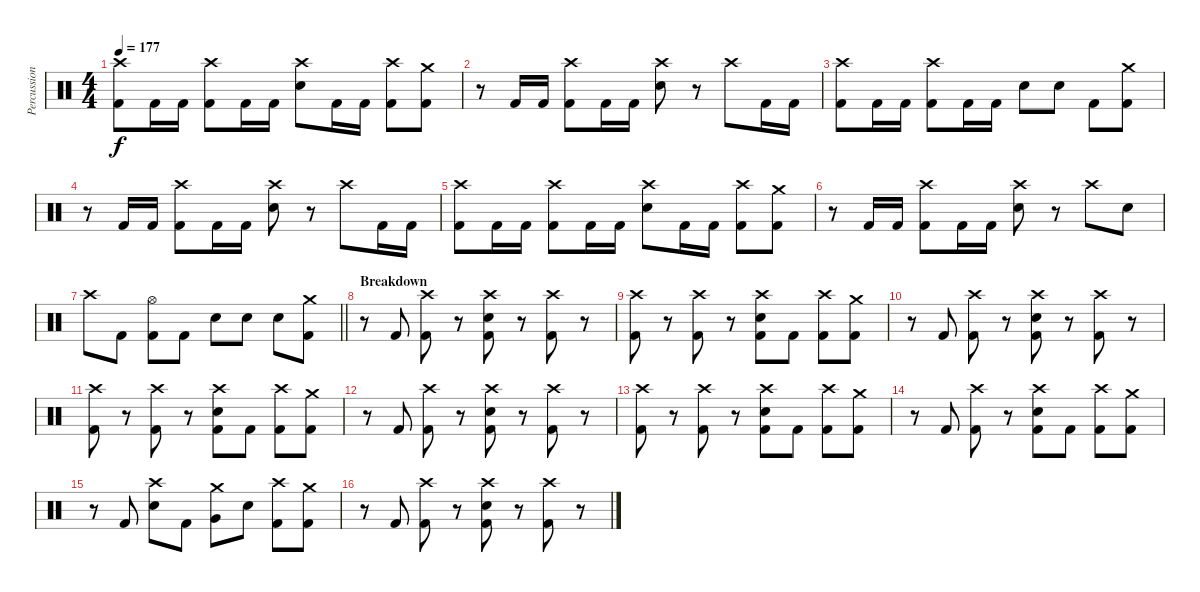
\track ("Percussion" "Percussion") {instrument percussion}
\staff {score}
\articulation defaults
\ts (4 4)
\tempo 177
\clef neutral
\ks c
("Crash high (hit)" "Kick (hit) 2").8{dy f} "Kick (hit) 2".16 "Kick (hit) 2".16 ("Crash high (hit)" "Kick (hit) 2").8 "Kick (hit) 2".16 "Kick (hit) 2".16 ("Crash high (hit)" "Snare (hit) 2").8 "Kick (hit) 2".16 "Kick (hit) 2".16 ("Crash high (hit)" "Kick (hit) 2").8 ("Crash medium (hit)" "Kick (hit) 2").8 |
r.8 "Kick (hit) 2".16 "Kick (hit) 2".16 ("Crash high (hit)" "Kick (hit) 2").8 "Kick (hit) 2".16 "Kick (hit) 2".16 ("Crash high (hit)" "Snare (hit) 2").8 r.8 "Crash high (hit)".8 "Kick (hit) 2".16 "Kick (hit) 2".16 |
("Crash high (hit)" "Kick (hit) 2").8 "Kick (hit) 2".16 "Kick (hit) 2".16 ("Crash high (hit)" "Kick (hit) 2").8 "Kick (hit) 2".16 "Kick (hit) 2".16 "Snare (hit) 2".8 "Snare (hit) 2".8 "Kick (hit) 2".8 ("Crash medium (hit)" "Kick (hit) 2").8 |
r.8 "Kick (hit) 2".16 "Kick (hit) 2".16 ("Crash high (hit)" "Kick (hit) 2").8 "Kick (hit) 2".16 "Kick (hit) 2".16 ("Crash high (hit)" "Snare (hit) 2").8 r.8 "Crash high (hit)".8 "Kick (hit) 2".16 "Kick (hit) 2".16 |
("Crash high (hit)" "Kick (hit) 2").8 "Kick (hit) 2".16 "Kick (hit) 2".16 ("Crash high (hit)" "Kick (hit) 2").8 "Kick (hit) 2".16 "Kick (hit) 2".16 ("Crash high (hit)" "Snare (hit) 2").8 "Kick (hit) 2".16 "Kick (hit) 2".16 ("Crash high (hit)" "Kick (hit) 2").8 ("Crash medium (hit)" "Kick (hit) 2").8 |
r.8 "Kick (hit) 2".16 "Kick (hit) 2".16 ("Crash high (hit)" "Kick (hit) 2").8 "Kick (hit) 2".16 "Kick (hit) 2".16 ("Crash high (hit)" "Snare (hit) 2").8 r.8 "Crash high (hit)".8 "Snare (hit) 2".8 |
\barLineRight lightlight "Crash high (hit)".8 "Kick (hit) 2".8
("Hi-Hat (open)" "Kick (hit) 2").8 "Kick (hit) 2".8 "Snare (hit) 2".8 "Snare (hit) 2".8 "Snare (hit) 2".8 ("Crash medium (hit)" "Kick (hit) 2").8 |
\section ("" "Breakdown")
r.8 "Kick (hit) 2".8 ("Crash high (hit)" "Kick (hit) 2").8 r.8 ("Crash high (hit)" "Snare (hit) 2" "Kick (hit) 2").8 r.8 ("Crash high (hit)" "Kick (hit) 2").8 r.8 |
("Crash high (hit)" "Kick (hit) 2").8 r.8 ("Crash high (hit)" "Kick (hit) 2").8 r.8 ("Crash high (hit)" "Snare (hit) 2" "Kick (hit) 2").8 "Kick (hit) 2".8 ("Crash high (hit)" "Kick (hit) 2").8 ("Crash medium (hit)" "Kick (hit) 2").8 |
r.8 "Kick (hit) 2".8 ("Crash high (hit)" "Kick (hit) 2").8 r.8 ("Crash high (hit)" "Snare (hit) 2" "Kick (hit) 2").8 r.8 ("Crash high (hit)" "Kick (hit) 2").8 r.8 |
("Crash high (hit)" "Kick (hit) 2").8 r.8 ("Crash high (hit)" "Kick (hit) 2").8 r.8 ("Crash high (hit)" "Snare (hit) 2" "Kick (hit) 2").8 "Kick (hit) 2".8 ("Crash high (hit)" "Kick (hit) 2").8 ("Crash medium (hit)" "Kick (hit) 2").8 |
r.8 "Kick (hit) 2".8 ("Crash high (hit)" "Kick (hit) 2").8 r.8 ("Crash high (hit)" "Snare (hit) 2" "Kick (hit) 2").8 r.8 ("Crash high (hit)" "Kick (hit) 2").8 r.8 |
("Crash high (hit)" "Kick (hit) 2").8 r.8 ("Crash high (hit)" "Kick (hit) 2").8 r.8 ("Crash high (hit)" "Snare (hit) 2" "Kick (hit) 2").8 "Kick (hit) 2".8 ("Crash high (hit)" "Kick (hit) 2").8 ("Crash medium (hit)" "Kick (hit) 2").8 |
r.8 "Kick (hit) 2".8 ("Crash high (hit)" "Kick (hit) 2").8 r.8 ("Crash high (hit)" "Snare (hit) 2" "Kick (hit) 2").8 "Kick (hit) 2".8 ("Crash high (hit)" "Kick (hit) 2").8 ("Crash medium (hit)" "Kick (hit) 2").8 |
r.8 "Kick (hit) 2".8 ("Crash high (hit)" "Snare (hit) 2").8 "Kick (hit) 2".8 ("Crash medium (hit)" "Very Low Tom (hit)").8 "Snare (hit) 2".8 ("Crash high (hit)" "Kick (hit) 2").8 ("Crash medium (hit)" "Kick (hit) 2").8 |
r.8 "Kick (hit) 2".8 ("Crash high (hit)" "Kick (hit) 2").8 r.8 ("Crash high (hit)" "Snare (hit) 2" "Kick (hit) 2").8 r.8 ("Crash high (hit)" "Kick (hit) 2").8 r.8
